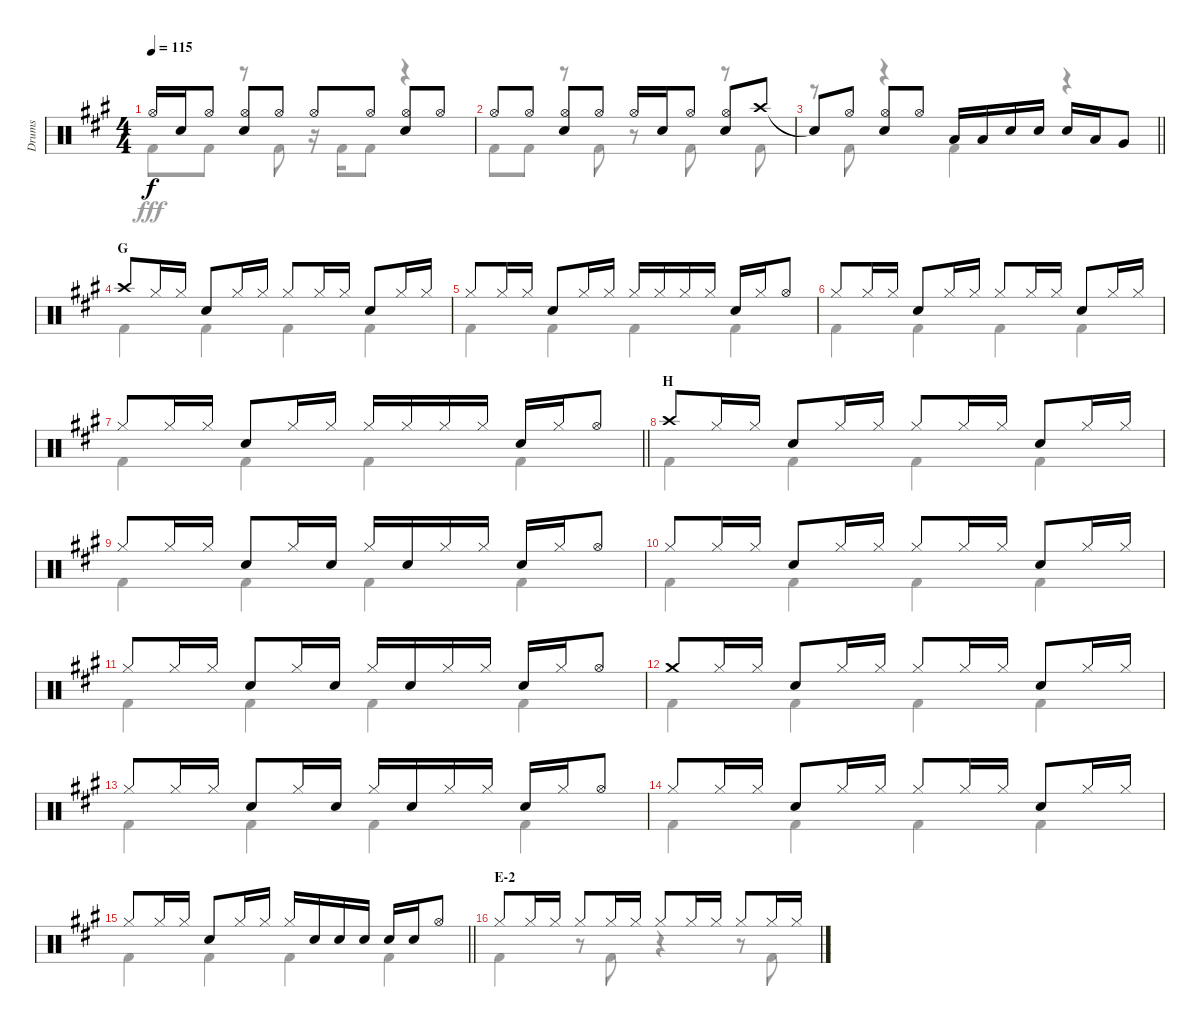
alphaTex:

\track ("Drums" "Drums") {instrument percussion}
\staff {score}
\articulation defaults
\voice
\ts (4 4)
\tempo 115
\clef neutral
\ks a "Hi-Hat (open)".16{dy f} "Snare (hit) 2".16 "Hi-Hat (open)".8
("Hi-Hat (open)" "Snare (hit) 2").8 "Hi-Hat (open)".8 "Hi-Hat (open)".8 "Hi-Hat (open)".8 ("Hi-Hat (open)" "Snare (hit) 2").8 "Hi-Hat (open)".8 |
"Hi-Hat (open)".8 "Hi-Hat (open)".8 ("Hi-Hat (open)" "Snare (hit) 2").8 "Hi-Hat (open)".8 "Hi-Hat (open)".16 "Snare (hit) 2".16 "Hi-Hat (open)".8 ("Hi-Hat (open)" "Snare (hit) 2").8 "Crash high (hit)".8 |
\barLineRight lightlight "Snare (hit)"{t}.8 "Hi-Hat (open)".8
("Hi-Hat (open)" "Snare (hit) 2").8 "Hi-Hat (open)".8 "Low Tom (hit)".16 "Low Tom (hit)".16 "Snare (hit) 2".16 "Snare (hit) 2".16 "Snare (hit) 2".16 "Low Tom (hit)".16 "Very Low Tom (hit)".8 |
\section ("" "G")
"Crash high (hit)".8 "Hi-Hat (closed)".16 "Hi-Hat (closed)".16 "Snare (hit) 2".8 "Hi-Hat (closed)".16 "Hi-Hat (closed)".16 "Hi-Hat (closed)".8 "Hi-Hat (closed)".16 "Hi-Hat (closed)".16 "Snare (hit) 2".8 "Hi-Hat (closed)".16 "Hi-Hat (closed)".16 |
"Hi-Hat (closed)".8 "Hi-Hat (closed)".16 "Hi-Hat (closed)".16 "Snare (hit) 2".8 "Hi-Hat (closed)".16 "Hi-Hat (closed)".16 "Hi-Hat (closed)".16 "Hi-Hat (closed)".16 "Hi-Hat (closed)".16 "Hi-Hat (closed)".16 "Snare (hit) 2".16 "Hi-Hat (closed)".16 "Hi-Hat (open)".8 |
"Hi-Hat (closed)".8 "Hi-Hat (closed)".16 "Hi-Hat (closed)".16 "Snare (hit) 2".8 "Hi-Hat (closed)".16 "Hi-Hat (closed)".16 "Hi-Hat (closed)".8 "Hi-Hat (closed)".16 "Hi-Hat (closed)".16 "Snare (hit) 2".8 "Hi-Hat (closed)".16 "Hi-Hat (closed)".16 |
\barLineRight lightlight "Hi-Hat (closed)".8 "Hi-Hat (closed)".16 "Hi-Hat (closed)".16 "Snare (hit) 2".8 "Hi-Hat (closed)".16 "Hi-Hat (closed)".16 "Hi-Hat (closed)".16 "Hi-Hat (closed)".16 "Hi-Hat (closed)".16 "Hi-Hat (closed)".16 "Snare (hit) 2".16 "Hi-Hat (closed)".16 "Hi-Hat (open)".8
|
\section ("" "H")
"Crash high (hit)".8 "Hi-Hat (closed)".16 "Hi-Hat (closed)".16 "Snare (hit) 2".8 "Hi-Hat (closed)".16 "Hi-Hat (closed)".16 "Hi-Hat (closed)".8 "Hi-Hat (closed)".16 "Hi-Hat (closed)".16 "Snare (hit) 2".8 "Hi-Hat (closed)".16 "Hi-Hat (closed)".16 |
"Hi-Hat (closed)".8 "Hi-Hat (closed)".16 "Hi-Hat (closed)".16 "Snare (hit) 2".8 "Hi-Hat (closed)".16 "Snare (hit) 2".16 "Hi-Hat (closed)".16 "Snare (hit) 2".16 "Hi-Hat (closed)".16 "Hi-Hat (closed)".16 "Snare (hit) 2".16 "Hi-Hat (closed)".16 "Hi-Hat (open)".8 |
"Hi-Hat (closed)".8 "Hi-Hat (closed)".16 "Hi-Hat (closed)".16 "Snare (hit) 2".8 "Hi-Hat (closed)".16 "Hi-Hat (closed)".16 "Hi-Hat (closed)".8 "Hi-Hat (closed)".16 "Hi-Hat (closed)".16 "Snare (hit) 2".8 "Hi-Hat (closed)".16 "Hi-Hat (closed)".16 |
"Hi-Hat (closed)".8 "Hi-Hat (closed)".16 "Hi-Hat (closed)".16 "Snare (hit) 2".8 "Hi-Hat (closed)".16 "Snare (hit) 2".16 "Hi-Hat (closed)".16 "Snare (hit) 2".16 "Hi-Hat (closed)".16 "Hi-Hat (closed)".16 "Snare (hit) 2".16 "Hi-Hat (closed)".16 "Hi-Hat (open)".8 |
"Crash medium (hit)".8 "Hi-Hat (closed)".16 "Hi-Hat (closed)".16 "Snare (hit) 2".8 "Hi-Hat (closed)".16 "Hi-Hat (closed)".16 "Hi-Hat (closed)".8 "Hi-Hat (closed)".16 "Hi-Hat (closed)".16 "Snare (hit) 2".8 "Hi-Hat (closed)".16 "Hi-Hat (closed)".16 |
"Hi-Hat (closed)".8 "Hi-Hat (closed)".16 "Hi-Hat (closed)".16 "Snare (hit) 2".8 "Hi-Hat (closed)".16 "Snare (hit) 2".16 "Hi-Hat (closed)".16 "Snare (hit) 2".16 "Hi-Hat (closed)".16 "Hi-Hat (closed)".16 "Snare (hit) 2".16 "Hi-Hat (closed)".16 "Hi-Hat (open)".8 |
"Hi-Hat (closed)".8 "Hi-Hat (closed)".16 "Hi-Hat (closed)".16 "Snare (hit) 2".8 "Hi-Hat (closed)".16 "Hi-Hat (closed)".16 "Hi-Hat (closed)".8 "Hi-Hat (closed)".16 "Hi-Hat (closed)".16 "Snare (hit) 2".8 "Hi-Hat (closed)".16 "Hi-Hat (closed)".16 |
\barLineRight lightlight "Hi-Hat (closed)".8 "Hi-Hat (closed)".16 "Hi-Hat (closed)".16 "Snare (hit) 2".8 "Hi-Hat (closed)".16 "Hi-Hat (closed)".16 "Hi-Hat (closed)".16 "Snare (hit) 2".16 "Snare (hit) 2".16 "Snare (hit) 2".16 "Snare (hit) 2".16 "Snare (hit) 2".16 "Hi-Hat (open)".8
|
\section ("" "E-2")
"Hi-Hat (closed)".8 "Hi-Hat (closed)".16 "Hi-Hat (closed)".16 "Hi-Hat (closed)".8 "Hi-Hat (closed)".16 "Hi-Hat (closed)".16 "Hi-Hat (closed)".8 "Hi-Hat (closed)".16 "Hi-Hat (closed)".16 "Hi-Hat (closed)".8 "Hi-Hat (closed)".16 "Hi-Hat (closed)".16
\voice
\clef neutral
\ottava regular
\simile none
\ks a "Kick (hit) 2".8{dy fff} "Kick (hit) 2".8
r.8 "Kick (hit) 2".8 r.16 "Kick (hit) 2".16 "Kick (hit) 2".8 r.4 |
"Kick (hit) 2".8 "Kick (hit) 2".8 r.8 "Kick (hit) 2".8 r.8 "Kick (hit) 2".8 r.8 "Kick (hit) 2".8 |
\barLineRight lightlight
r.8 "Kick (hit) 2".8 r.4 "Kick (hit) 2".4 r.4 |
"Kick (hit) 2".4 "Kick (hit) 2".4 "Kick (hit) 2".4 "Kick (hit) 2".4 |
"Kick (hit) 2".4 "Kick (hit) 2".4 "Kick (hit) 2".4 "Kick (hit) 2".4 |
"Kick (hit) 2".4 "Kick (hit) 2".4 "Kick (hit) 2".4 "Kick (hit) 2".4 |
\barLineRight lightlight "Kick (hit) 2".4 "Kick (hit) 2".4 "Kick (hit) 2".4 "Kick (hit) 2".4
|
"Kick (hit) 2".4 "Kick (hit) 2".4 "Kick (hit) 2".4 "Kick (hit) 2".4 |
"Kick (hit) 2".4 "Kick (hit) 2".4 "Kick (hit) 2".4 "Kick (hit) 2".4 |
"Kick (hit) 2".4 "Kick (hit) 2".4 "Kick (hit) 2".4 "Kick (hit) 2".4 |
"Kick (hit) 2".4 "Kick (hit) 2".4 "Kick (hit) 2".4 "Kick (hit) 2".4 |
"Kick (hit) 2".4 "Kick (hit) 2".4 "Kick (hit) 2".4 "Kick (hit) 2".4 |
"Kick (hit) 2".4 "Kick (hit) 2".4 "Kick (hit) 2".4 "Kick (hit) 2".4 |
"Kick (hit) 2".4 "Kick (hit) 2".4 "Kick (hit) 2".4 "Kick (hit) 2".4 |
\barLineRight lightlight "Kick (hit) 2".4 "Kick (hit) 2".4 "Kick (hit) 2".4 "Kick (hit) 2".4
|
"Kick (hit) 2".4 r.8 "Kick (hit) 2".8 r.4 r.8 "Kick (hit) 2".8
